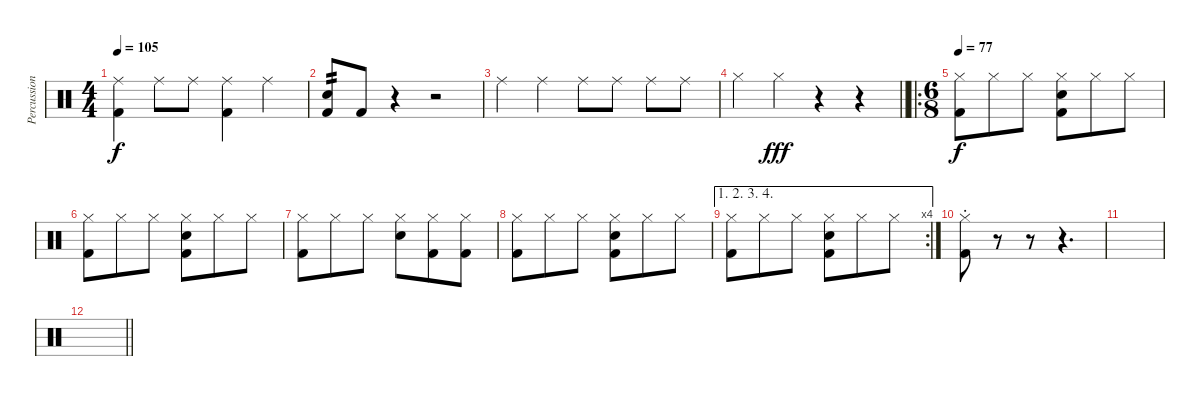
\track ("Percussion" "Percussion") {instrument percussion}
\staff {score}
\articulation defaults
\ts (4 4)
\tempo 105
\clef neutral
\ks c
("Ride (middle)" "Kick (hit) 2").4{dy f} "Ride (middle)".8 "Ride (middle)".8 ("Ride (middle)" "Kick (hit) 2").4 "Ride (middle)".4 |
("Snare (hit) 2" "Kick (hit) 2").8{tp 2} "Kick (hit) 2".8 r.4 r.2 |
"Ride (middle)".4 "Ride (middle)".4 "Ride (middle)".8 "Ride (middle)".8 "Ride (middle)".8 "Ride (middle)".8 |
\barLineRight lightlight "Hi-Hat (closed)".4 "Hi-Hat (closed)".4{dy fff}
r.4 r.4 |
\ro
\ts (6 8)
\tempo 77
("Hi-Hat (closed)" "Kick (hit) 2").8{dy f} "Hi-Hat (closed)".8 "Hi-Hat (closed)".8 ("Hi-Hat (closed)" "Kick (hit) 2" "Snare (hit) 2").8 "Hi-Hat (closed)".8 "Hi-Hat (closed)".8 |
("Hi-Hat (closed)" "Kick (hit) 2").8 "Hi-Hat (closed)".8 "Hi-Hat (closed)".8 ("Hi-Hat (closed)" "Kick (hit) 2" "Snare (hit) 2").8 "Hi-Hat (closed)".8 "Hi-Hat (closed)".8 |
("Hi-Hat (closed)" "Kick (hit) 2").8 "Hi-Hat (closed)".8 "Hi-Hat (closed)".8 ("Hi-Hat (closed)" "Snare (hit) 2").8 ("Hi-Hat (closed)" "Kick (hit) 2").8 ("Hi-Hat (closed)" "Kick (hit) 2").8 |
("Hi-Hat (closed)" "Kick (hit) 2").8 "Hi-Hat (closed)".8 "Hi-Hat (closed)".8 ("Hi-Hat (closed)" "Kick (hit) 2" "Snare (hit) 2").8 "Hi-Hat (closed)".8 "Hi-Hat (closed)".8 |
\ae (1 2 3 4)
\rc 4
("Hi-Hat (closed)" "Kick (hit) 2").8 "Hi-Hat (closed)".8 "Hi-Hat (closed)".8 ("Hi-Hat (closed)" "Kick (hit) 2" "Snare (hit) 2").8 "Hi-Hat (closed)".8 "Hi-Hat (closed)".8 |
("Hi-Hat (closed)"{st} "Kick (hit) 2"{st}).8 r.8 r.8 r.4{d} |
|
\barLineRight lightlight
